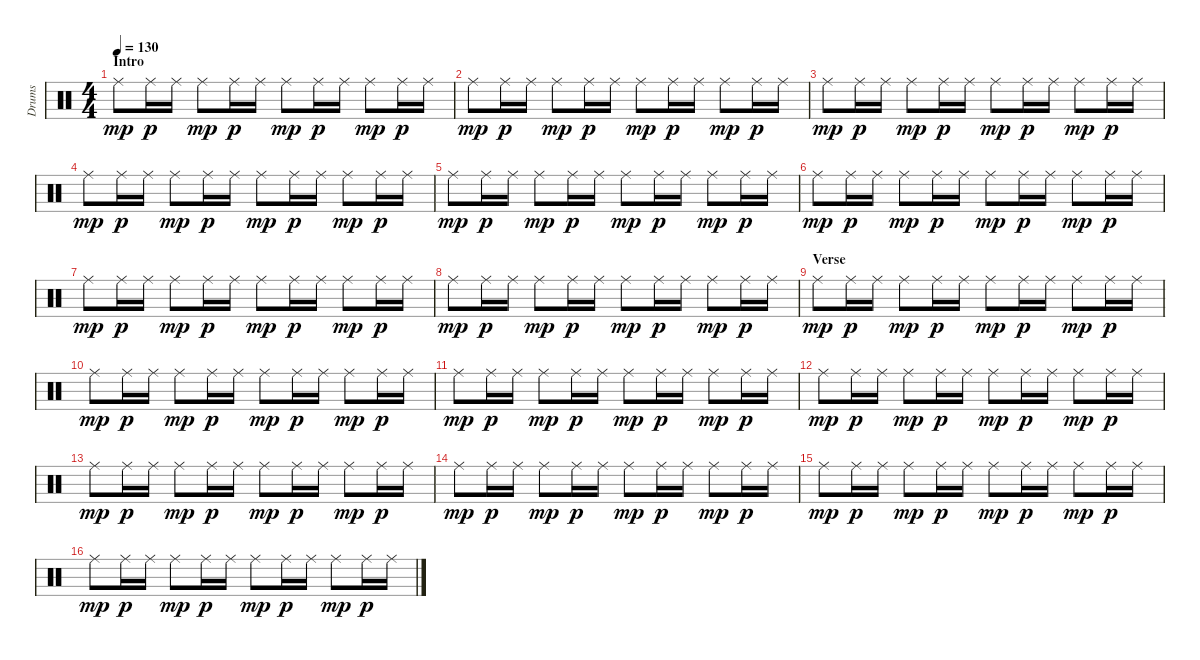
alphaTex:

\track ("Drums" "Drums") {instrument percussion}
\staff {score}
\articulation defaults
\ts (4 4)
\section ("" "Intro")
\tempo 130
\clef neutral
\ks c "Ride (middle)".8{dy mp} "Ride (middle)".16{dy p} "Ride (middle)".16 "Ride (middle)".8{dy mp} "Ride (middle)".16{dy p} "Ride (middle)".16 "Ride (middle)".8{dy mp} "Ride (middle)".16{dy p} "Ride (middle)".16 "Ride (middle)".8{dy mp} "Ride (middle)".16{dy p} "Ride (middle)".16
|
"Ride (middle)".8{dy mp} "Ride (middle)".16{dy p} "Ride (middle)".16 "Ride (middle)".8{dy mp} "Ride (middle)".16{dy p} "Ride (middle)".16 "Ride (middle)".8{dy mp} "Ride (middle)".16{dy p} "Ride (middle)".16 "Ride (middle)".8{dy mp} "Ride (middle)".16{dy p} "Ride (middle)".16 |
"Ride (middle)".8{dy mp} "Ride (middle)".16{dy p} "Ride (middle)".16 "Ride (middle)".8{dy mp} "Ride (middle)".16{dy p} "Ride (middle)".16 "Ride (middle)".8{dy mp} "Ride (middle)".16{dy p} "Ride (middle)".16 "Ride (middle)".8{dy mp} "Ride (middle)".16{dy p} "Ride (middle)".16 |
"Ride (middle)".8{dy mp} "Ride (middle)".16{dy p} "Ride (middle)".16 "Ride (middle)".8{dy mp} "Ride (middle)".16{dy p} "Ride (middle)".16 "Ride (middle)".8{dy mp} "Ride (middle)".16{dy p} "Ride (middle)".16 "Ride (middle)".8{dy mp} "Ride (middle)".16{dy p} "Ride (middle)".16 |
"Ride (middle)".8{dy mp} "Ride (middle)".16{dy p} "Ride (middle)".16 "Ride (middle)".8{dy mp} "Ride (middle)".16{dy p} "Ride (middle)".16 "Ride (middle)".8{dy mp} "Ride (middle)".16{dy p} "Ride (middle)".16 "Ride (middle)".8{dy mp} "Ride (middle)".16{dy p} "Ride (middle)".16 |
"Ride (middle)".8{dy mp} "Ride (middle)".16{dy p} "Ride (middle)".16 "Ride (middle)".8{dy mp} "Ride (middle)".16{dy p} "Ride (middle)".16 "Ride (middle)".8{dy mp} "Ride (middle)".16{dy p} "Ride (middle)".16 "Ride (middle)".8{dy mp} "Ride (middle)".16{dy p} "Ride (middle)".16 |
"Ride (middle)".8{dy mp} "Ride (middle)".16{dy p} "Ride (middle)".16 "Ride (middle)".8{dy mp} "Ride (middle)".16{dy p} "Ride (middle)".16 "Ride (middle)".8{dy mp} "Ride (middle)".16{dy p} "Ride (middle)".16 "Ride (middle)".8{dy mp} "Ride (middle)".16{dy p} "Ride (middle)".16 |
"Ride (middle)".8{dy mp} "Ride (middle)".16{dy p} "Ride (middle)".16 "Ride (middle)".8{dy mp} "Ride (middle)".16{dy p} "Ride (middle)".16 "Ride (middle)".8{dy mp} "Ride (middle)".16{dy p} "Ride (middle)".16 "Ride (middle)".8{dy mp} "Ride (middle)".16{dy p} "Ride (middle)".16 |
\section ("" "Verse")
"Ride (middle)".8{dy mp} "Ride (middle)".16{dy p} "Ride (middle)".16 "Ride (middle)".8{dy mp} "Ride (middle)".16{dy p} "Ride (middle)".16 "Ride (middle)".8{dy mp} "Ride (middle)".16{dy p} "Ride (middle)".16 "Ride (middle)".8{dy mp} "Ride (middle)".16{dy p} "Ride (middle)".16 |
"Ride (middle)".8{dy mp} "Ride (middle)".16{dy p} "Ride (middle)".16 "Ride (middle)".8{dy mp} "Ride (middle)".16{dy p} "Ride (middle)".16 "Ride (middle)".8{dy mp} "Ride (middle)".16{dy p} "Ride (middle)".16 "Ride (middle)".8{dy mp} "Ride (middle)".16{dy p} "Ride (middle)".16 |
"Ride (middle)".8{dy mp} "Ride (middle)".16{dy p} "Ride (middle)".16 "Ride (middle)".8{dy mp} "Ride (middle)".16{dy p} "Ride (middle)".16 "Ride (middle)".8{dy mp} "Ride (middle)".16{dy p} "Ride (middle)".16 "Ride (middle)".8{dy mp} "Ride (middle)".16{dy p} "Ride (middle)".16 |
"Ride (middle)".8{dy mp} "Ride (middle)".16{dy p} "Ride (middle)".16 "Ride (middle)".8{dy mp} "Ride (middle)".16{dy p} "Ride (middle)".16 "Ride (middle)".8{dy mp} "Ride (middle)".16{dy p} "Ride (middle)".16 "Ride (middle)".8{dy mp} "Ride (middle)".16{dy p} "Ride (middle)".16 |
"Ride (middle)".8{dy mp} "Ride (middle)".16{dy p} "Ride (middle)".16 "Ride (middle)".8{dy mp} "Ride (middle)".16{dy p} "Ride (middle)".16 "Ride (middle)".8{dy mp} "Ride (middle)".16{dy p} "Ride (middle)".16 "Ride (middle)".8{dy mp} "Ride (middle)".16{dy p} "Ride (middle)".16 |
"Ride (middle)".8{dy mp} "Ride (middle)".16{dy p} "Ride (middle)".16 "Ride (middle)".8{dy mp} "Ride (middle)".16{dy p} "Ride (middle)".16 "Ride (middle)".8{dy mp} "Ride (middle)".16{dy p} "Ride (middle)".16 "Ride (middle)".8{dy mp} "Ride (middle)".16{dy p} "Ride (middle)".16 |
"Ride (middle)".8{dy mp} "Ride (middle)".16{dy p} "Ride (middle)".16 "Ride (middle)".8{dy mp} "Ride (middle)".16{dy p} "Ride (middle)".16 "Ride (middle)".8{dy mp} "Ride (middle)".16{dy p} "Ride (middle)".16 "Ride (middle)".8{dy mp} "Ride (middle)".16{dy p} "Ride (middle)".16 |
"Ride (middle)".8{dy mp} "Ride (middle)".16{dy p} "Ride (middle)".16 "Ride (middle)".8{dy mp} "Ride (middle)".16{dy p} "Ride (middle)".16 "Ride (middle)".8{dy mp} "Ride (middle)".16{dy p} "Ride (middle)".16 "Ride (middle)".8{dy mp} "Ride (middle)".16{dy p} "Ride (middle)".16
